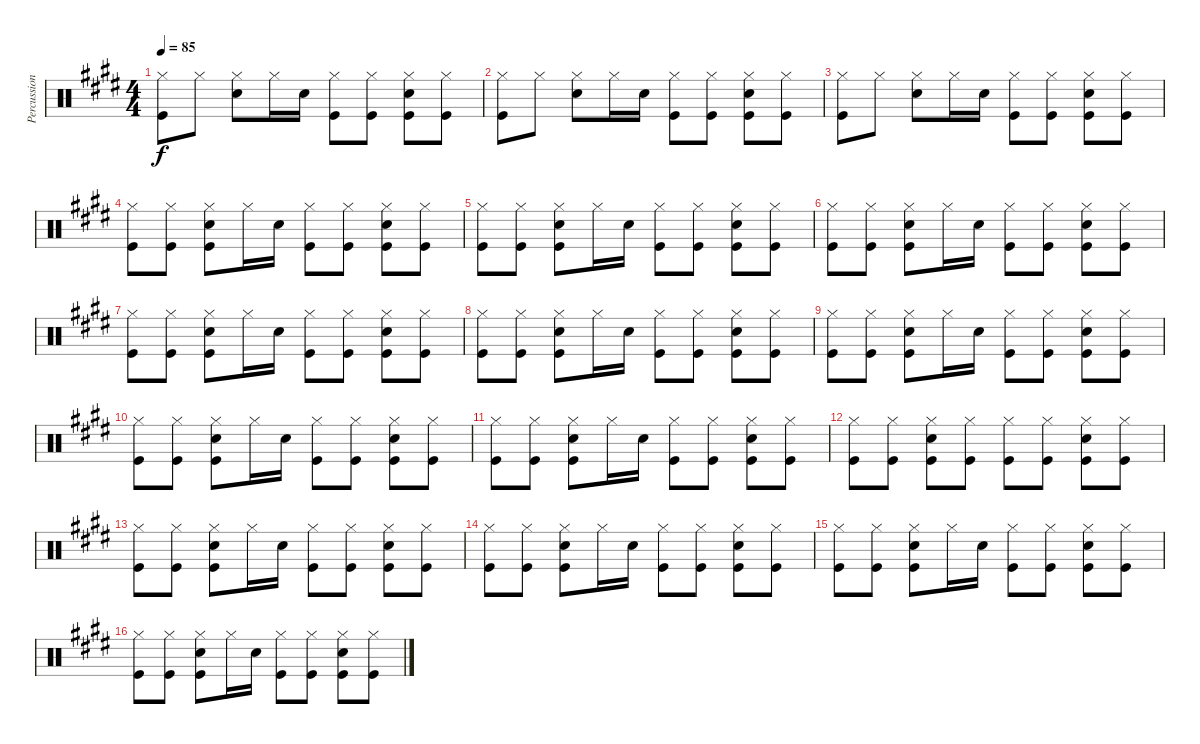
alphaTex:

\track ("Percussion" "Percussion") {instrument percussion}
\staff {score}
\articulation defaults
\ts (4 4)
\tempo 85
\clef neutral
\ks e
("Hi-Hat (closed)" "Kick (hit)").8{dy f} "Hi-Hat (closed)".8 ("Hi-Hat (closed)" "Snare (hit) 2").8 "Hi-Hat (closed)".16 "Snare (hit) 2".16 ("Hi-Hat (closed)" "Kick (hit)").8 ("Hi-Hat (closed)" "Kick (hit)").8 ("Hi-Hat (closed)" "Snare (hit) 2" "Kick (hit)").8 ("Hi-Hat (closed)" "Kick (hit)").8 |
("Hi-Hat (closed)" "Kick (hit)").8 "Hi-Hat (closed)".8 ("Hi-Hat (closed)" "Snare (hit) 2").8 "Hi-Hat (closed)".16 "Snare (hit) 2".16 ("Hi-Hat (closed)" "Kick (hit)").8 ("Hi-Hat (closed)" "Kick (hit)").8 ("Hi-Hat (closed)" "Snare (hit) 2" "Kick (hit)").8 ("Hi-Hat (closed)" "Kick (hit)").8 |
("Hi-Hat (closed)" "Kick (hit)").8 "Hi-Hat (closed)".8 ("Hi-Hat (closed)" "Snare (hit) 2").8 "Hi-Hat (closed)".16 "Snare (hit) 2".16 ("Hi-Hat (closed)" "Kick (hit)").8 ("Hi-Hat (closed)" "Kick (hit)").8 ("Hi-Hat (closed)" "Snare (hit) 2" "Kick (hit)").8 ("Hi-Hat (closed)" "Kick (hit)").8 |
("Hi-Hat (closed)" "Kick (hit)").8 ("Hi-Hat (closed)" "Kick (hit)").8 ("Hi-Hat (closed)" "Snare (hit) 2" "Kick (hit)").8 "Hi-Hat (closed)".16 "Snare (hit) 2".16 ("Hi-Hat (closed)" "Kick (hit)").8 ("Hi-Hat (closed)" "Kick (hit)").8 ("Hi-Hat (closed)" "Snare (hit) 2" "Kick (hit)").8 ("Hi-Hat (closed)" "Kick (hit)").8 |
("Hi-Hat (closed)" "Kick (hit)").8 ("Hi-Hat (closed)" "Kick (hit)").8 ("Hi-Hat (closed)" "Snare (hit) 2" "Kick (hit)").8 "Hi-Hat (closed)".16 "Snare (hit) 2".16 ("Hi-Hat (closed)" "Kick (hit)").8 ("Hi-Hat (closed)" "Kick (hit)").8 ("Hi-Hat (closed)" "Snare (hit) 2" "Kick (hit)").8 ("Hi-Hat (closed)" "Kick (hit)").8 |
("Hi-Hat (closed)" "Kick (hit)").8 ("Hi-Hat (closed)" "Kick (hit)").8 ("Hi-Hat (closed)" "Snare (hit) 2" "Kick (hit)").8 "Hi-Hat (closed)".16 "Snare (hit) 2".16 ("Hi-Hat (closed)" "Kick (hit)").8 ("Hi-Hat (closed)" "Kick (hit)").8 ("Hi-Hat (closed)" "Snare (hit) 2" "Kick (hit)").8 ("Hi-Hat (closed)" "Kick (hit)").8 |
("Hi-Hat (closed)" "Kick (hit)").8 ("Hi-Hat (closed)" "Kick (hit)").8 ("Hi-Hat (closed)" "Snare (hit) 2" "Kick (hit)").8 "Hi-Hat (closed)".16 "Snare (hit) 2".16 ("Hi-Hat (closed)" "Kick (hit)").8 ("Hi-Hat (closed)" "Kick (hit)").8 ("Hi-Hat (closed)" "Snare (hit) 2" "Kick (hit)").8 ("Hi-Hat (closed)" "Kick (hit)").8 |
("Hi-Hat (closed)" "Kick (hit)").8 ("Hi-Hat (closed)" "Kick (hit)").8 ("Hi-Hat (closed)" "Snare (hit) 2" "Kick (hit)").8 "Hi-Hat (closed)".16 "Snare (hit) 2".16 ("Hi-Hat (closed)" "Kick (hit)").8 ("Hi-Hat (closed)" "Kick (hit)").8 ("Hi-Hat (closed)" "Snare (hit) 2" "Kick (hit)").8 ("Hi-Hat (closed)" "Kick (hit)").8 |
("Hi-Hat (closed)" "Kick (hit)").8 ("Hi-Hat (closed)" "Kick (hit)").8 ("Hi-Hat (closed)" "Snare (hit) 2" "Kick (hit)").8 "Hi-Hat (closed)".16 "Snare (hit) 2".16 ("Hi-Hat (closed)" "Kick (hit)").8 ("Hi-Hat (closed)" "Kick (hit)").8 ("Hi-Hat (closed)" "Snare (hit) 2" "Kick (hit)").8 ("Hi-Hat (closed)" "Kick (hit)").8 |
("Hi-Hat (closed)" "Kick (hit)").8 ("Hi-Hat (closed)" "Kick (hit)").8 ("Hi-Hat (closed)" "Snare (hit) 2" "Kick (hit)").8 "Hi-Hat (closed)".16 "Snare (hit) 2".16 ("Hi-Hat (closed)" "Kick (hit)").8 ("Hi-Hat (closed)" "Kick (hit)").8 ("Hi-Hat (closed)" "Snare (hit) 2" "Kick (hit)").8 ("Hi-Hat (closed)" "Kick (hit)").8 |
("Hi-Hat (closed)" "Kick (hit)").8 ("Hi-Hat (closed)" "Kick (hit)").8 ("Hi-Hat (closed)" "Snare (hit) 2" "Kick (hit)").8 "Hi-Hat (closed)".16 "Snare (hit) 2".16 ("Hi-Hat (closed)" "Kick (hit)").8 ("Hi-Hat (closed)" "Kick (hit)").8 ("Hi-Hat (closed)" "Snare (hit) 2" "Kick (hit)").8 ("Hi-Hat (closed)" "Kick (hit)").8 |
("Hi-Hat (closed)" "Kick (hit)").8 ("Hi-Hat (closed)" "Kick (hit)").8 ("Hi-Hat (closed)" "Snare (hit) 2" "Kick (hit)").8 ("Hi-Hat (closed)" "Kick (hit)").8 ("Hi-Hat (closed)" "Kick (hit)").8 ("Hi-Hat (closed)" "Kick (hit)").8 ("Hi-Hat (closed)" "Snare (hit) 2" "Kick (hit)").8 ("Hi-Hat (closed)" "Kick (hit)").8 |
("Hi-Hat (closed)" "Kick (hit)").8 ("Hi-Hat (closed)" "Kick (hit)").8 ("Hi-Hat (closed)" "Snare (hit) 2" "Kick (hit)").8 "Hi-Hat (closed)".16 "Snare (hit) 2".16 ("Hi-Hat (closed)" "Kick (hit)").8 ("Hi-Hat (closed)" "Kick (hit)").8 ("Hi-Hat (closed)" "Snare (hit) 2" "Kick (hit)").8 ("Hi-Hat (closed)" "Kick (hit)").8 |
("Hi-Hat (closed)" "Kick (hit)").8 ("Hi-Hat (closed)" "Kick (hit)").8 ("Hi-Hat (closed)" "Snare (hit) 2" "Kick (hit)").8 "Hi-Hat (closed)".16 "Snare (hit) 2".16 ("Hi-Hat (closed)" "Kick (hit)").8 ("Hi-Hat (closed)" "Kick (hit)").8 ("Hi-Hat (closed)" "Snare (hit) 2" "Kick (hit)").8 ("Hi-Hat (closed)" "Kick (hit)").8 |
("Hi-Hat (closed)" "Kick (hit)").8 ("Hi-Hat (closed)" "Kick (hit)").8 ("Hi-Hat (closed)" "Snare (hit) 2" "Kick (hit)").8 "Hi-Hat (closed)".16 "Snare (hit) 2".16 ("Hi-Hat (closed)" "Kick (hit)").8 ("Hi-Hat (closed)" "Kick (hit)").8 ("Hi-Hat (closed)" "Snare (hit) 2" "Kick (hit)").8 ("Hi-Hat (closed)" "Kick (hit)").8 |
("Hi-Hat (closed)" "Kick (hit)").8 ("Hi-Hat (closed)" "Kick (hit)").8 ("Hi-Hat (closed)" "Snare (hit) 2" "Kick (hit)").8 "Hi-Hat (closed)".16 "Snare (hit) 2".16 ("Hi-Hat (closed)" "Kick (hit)").8 ("Hi-Hat (closed)" "Kick (hit)").8 ("Hi-Hat (closed)" "Snare (hit) 2" "Kick (hit)").8 ("Hi-Hat (closed)" "Kick (hit)").8
